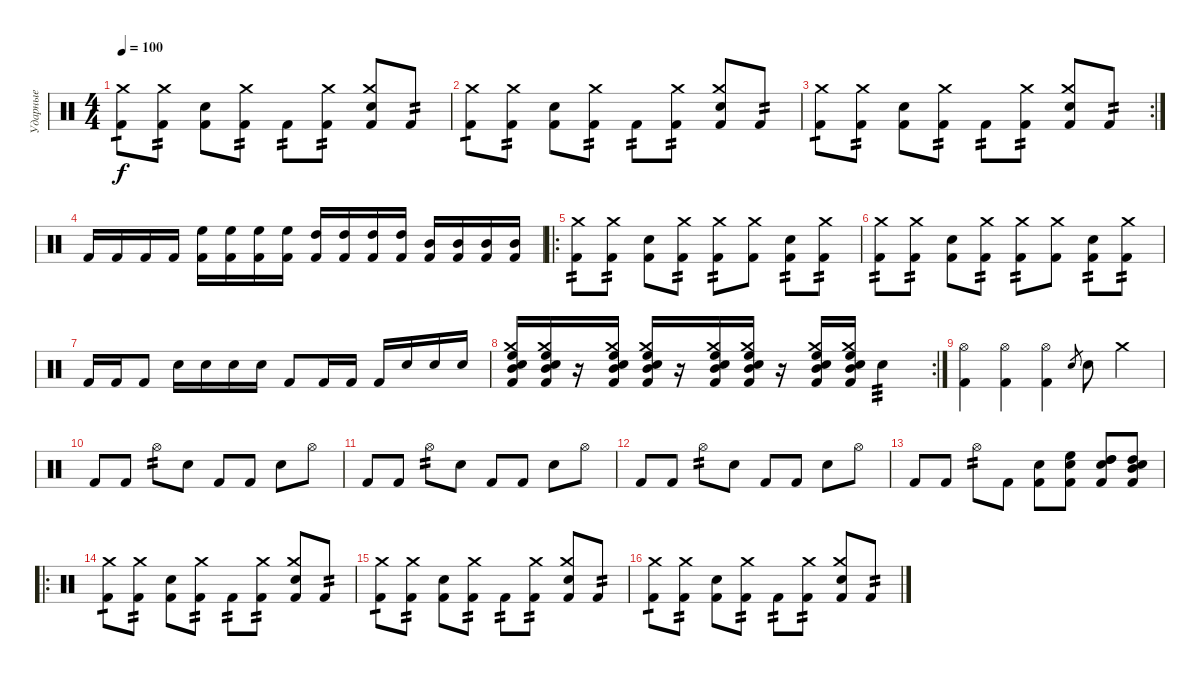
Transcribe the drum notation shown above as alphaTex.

\track ("Ударные" "Ударные") {instrument percussion}
\staff {score}
\articulation defaults
\ts (4 4)
\tempo 100
\clef neutral
\ks c
("Kick (hit) 2" "Crash medium (hit)").8{tp 1 dy f} ("Kick (hit) 2" "Crash medium (hit)").8{tp 2} ("Kick (hit) 2" "Snare (hit) 2").8 ("Kick (hit) 2" "Crash medium (hit)").8{tp 2} "Kick (hit) 2".8{tp 2} ("Kick (hit) 2" "Crash medium (hit)").8{tp 2} ("Kick (hit) 2" "Snare (hit) 2" "Crash medium (hit)").8 "Kick (hit) 2".8{tp 2} |
("Kick (hit) 2" "Crash medium (hit)").8{tp 1} ("Kick (hit) 2" "Crash medium (hit)").8{tp 2} ("Kick (hit) 2" "Snare (hit) 2").8 ("Kick (hit) 2" "Crash medium (hit)").8{tp 2} "Kick (hit) 2".8{tp 2} ("Kick (hit) 2" "Crash medium (hit)").8{tp 2} ("Kick (hit) 2" "Snare (hit) 2" "Crash medium (hit)").8 "Kick (hit) 2".8{tp 2} |
\rc 2
("Kick (hit) 2" "Crash medium (hit)").8{tp 1} ("Kick (hit) 2" "Crash medium (hit)").8{tp 2} ("Kick (hit) 2" "Snare (hit) 2").8 ("Kick (hit) 2" "Crash medium (hit)").8{tp 2} "Kick (hit) 2".8{tp 2} ("Kick (hit) 2" "Crash medium (hit)").8{tp 2} ("Kick (hit) 2" "Snare (hit) 2" "Crash medium (hit)").8 "Kick (hit) 2".8{tp 2} |
"Kick (hit) 2".16 "Kick (hit) 2".16 "Kick (hit) 2".16 "Kick (hit) 2".16 ("Kick (hit) 2" "High Floor Tom (hit)").16 ("Kick (hit) 2" "High Floor Tom (hit)").16 ("Kick (hit) 2" "High Floor Tom (hit)").16 ("Kick (hit) 2" "High Floor Tom (hit)").16 ("Kick (hit) 2" "High Tom (hit)").16 ("Kick (hit) 2" "High Tom (hit)").16 ("Kick (hit) 2" "High Tom (hit)").16 ("Kick (hit) 2" "High Tom (hit)").16 ("Kick (hit) 2" "Mid Tom (hit)").16 ("Kick (hit) 2" "Mid Tom (hit)").16 ("Kick (hit) 2" "Mid Tom (hit)").16 ("Kick (hit) 2" "Mid Tom (hit)").16 |
\ro
("Kick (hit) 2" "Crash medium (hit)").8{tp 2} ("Kick (hit) 2" "Crash medium (hit)").8{tp 2} ("Kick (hit) 2" "Snare (hit) 2").8 ("Kick (hit) 2" "Crash medium (hit)").8{tp 2} ("Kick (hit) 2" "Crash medium (hit)").8{tp 2} ("Kick (hit) 2" "Crash medium (hit)").8 ("Kick (hit) 2" "Snare (hit) 2").8{tp 2} ("Kick (hit) 2" "Crash medium (hit)").8{tp 2} |
("Kick (hit) 2" "Crash medium (hit)").8{tp 2} ("Kick (hit) 2" "Crash medium (hit)").8{tp 2} ("Kick (hit) 2" "Snare (hit) 2").8 ("Kick (hit) 2" "Crash medium (hit)").8{tp 2} ("Kick (hit) 2" "Crash medium (hit)").8{tp 2} ("Kick (hit) 2" "Crash medium (hit)").8 ("Kick (hit) 2" "Snare (hit) 2").8{tp 2} ("Kick (hit) 2" "Crash medium (hit)").8{tp 2} |
"Kick (hit) 2".16 "Kick (hit) 2".16 "Kick (hit) 2".8 "Snare (hit) 2".16 "Snare (hit) 2".16 "Snare (hit) 2".16 "Snare (hit) 2".16 "Kick (hit) 2".8 "Kick (hit) 2".16 "Kick (hit) 2".16 "Kick (hit) 2".16 "Snare (hit) 2".16 "Snare (hit) 2".16 "Snare (hit) 2".16 |
\rc 2
("Kick (hit) 2" "Snare (hit) 2" "High Floor Tom (hit)" "Mid Tom (hit)" "Crash medium (hit)").16 ("Kick (hit) 2" "Snare (hit) 2" "High Floor Tom (hit)" "Mid Tom (hit)" "Crash medium (hit)").16 r.16 ("Kick (hit) 2" "Snare (hit) 2" "High Floor Tom (hit)" "Mid Tom (hit)" "Crash medium (hit)").16 ("Kick (hit) 2" "Snare (hit) 2" "High Floor Tom (hit)" "Mid Tom (hit)" "Crash medium (hit)").16 r.16 ("Kick (hit) 2" "Snare (hit) 2" "High Floor Tom (hit)" "Mid Tom (hit)" "Crash medium (hit)").16 ("Kick (hit) 2" "Snare (hit) 2" "High Floor Tom (hit)" "Mid Tom (hit)" "Crash medium (hit)").16 r.16 ("Kick (hit) 2" "Snare (hit) 2" "High Floor Tom (hit)" "Mid Tom (hit)" "Crash medium (hit)").16 ("Kick (hit) 2" "Snare (hit) 2" "High Floor Tom (hit)" "Mid Tom (hit)" "Crash medium (hit)").16 "Snare (hit) 2".4{tp 3} |
("Kick (hit) 2" "Hi-Hat (open)").4 ("Kick (hit) 2" "Hi-Hat (open)").4 ("Kick (hit) 2" "Hi-Hat (open)").4 "Snare (hit) 2".8{gr} "Snare (hit) 2".8 "Crash medium (hit)".4 |
"Kick (hit) 2".8 "Kick (hit) 2".8 "Hi-Hat (open)".8{tp 2} "Snare (hit) 2".8 "Kick (hit) 2".8 "Kick (hit) 2".8 "Snare (hit) 2".8 "Hi-Hat (open)".8 |
"Kick (hit) 2".8 "Kick (hit) 2".8 "Hi-Hat (open)".8{tp 2} "Snare (hit) 2".8 "Kick (hit) 2".8 "Kick (hit) 2".8 "Snare (hit) 2".8 "Hi-Hat (open)".8 |
"Kick (hit) 2".8 "Kick (hit) 2".8 "Hi-Hat (open)".8{tp 2} "Snare (hit) 2".8 "Kick (hit) 2".8 "Kick (hit) 2".8 "Snare (hit) 2".8 "Hi-Hat (open)".8 |
"Kick (hit) 2".8 "Kick (hit) 2".8 "Hi-Hat (open)".8{tp 2} "Kick (hit) 2".8 ("Kick (hit) 2" "Snare (hit) 2").8 ("Kick (hit) 2" "Snare (hit) 2" "High Floor Tom (hit)").8 ("Kick (hit) 2" "Snare (hit) 2" "High Tom (hit)" "High Tom (hit)").8 ("Kick (hit) 2" "Snare (hit) 2" "Mid Tom (hit)" "High Tom (hit)").8 |
\ro
("Kick (hit) 2" "Crash medium (hit)").8{tp 1} ("Kick (hit) 2" "Crash medium (hit)").8{tp 2} ("Kick (hit) 2" "Snare (hit) 2").8 ("Kick (hit) 2" "Crash medium (hit)").8{tp 2} "Kick (hit) 2".8{tp 2} ("Kick (hit) 2" "Crash medium (hit)").8{tp 2} ("Kick (hit) 2" "Snare (hit) 2" "Crash medium (hit)").8 "Kick (hit) 2".8{tp 2} |
("Kick (hit) 2" "Crash medium (hit)").8{tp 1} ("Kick (hit) 2" "Crash medium (hit)").8{tp 2} ("Kick (hit) 2" "Snare (hit) 2").8 ("Kick (hit) 2" "Crash medium (hit)").8{tp 2} "Kick (hit) 2".8{tp 2} ("Kick (hit) 2" "Crash medium (hit)").8{tp 2} ("Kick (hit) 2" "Snare (hit) 2" "Crash medium (hit)").8 "Kick (hit) 2".8{tp 2} |
("Kick (hit) 2" "Crash medium (hit)").8{tp 1} ("Kick (hit) 2" "Crash medium (hit)").8{tp 2} ("Kick (hit) 2" "Snare (hit) 2").8 ("Kick (hit) 2" "Crash medium (hit)").8{tp 2} "Kick (hit) 2".8{tp 2} ("Kick (hit) 2" "Crash medium (hit)").8{tp 2} ("Kick (hit) 2" "Snare (hit) 2" "Crash medium (hit)").8 "Kick (hit) 2".8{tp 2}
